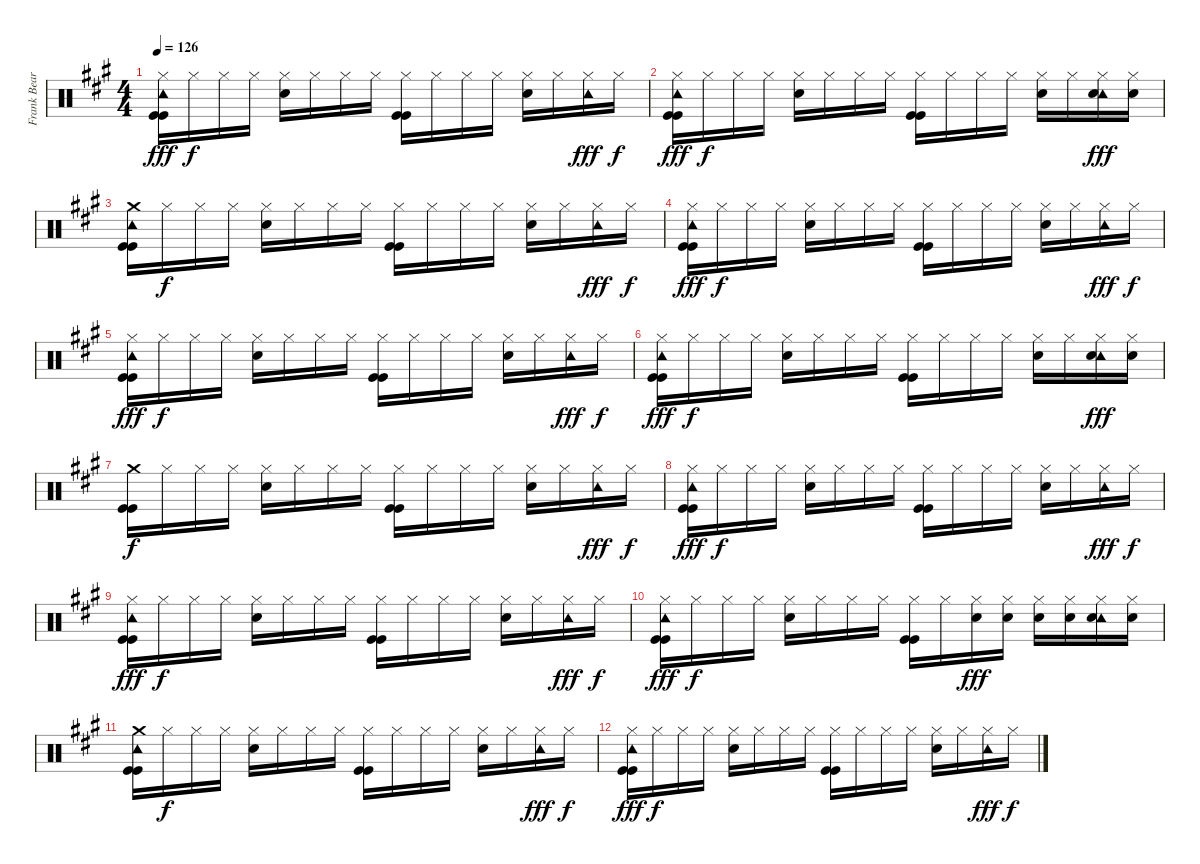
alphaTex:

\track ("Frank Beard: Drums" "Frank Bear") {instrument percussion}
\staff {score}
\articulation defaults
\ts (4 4)
\tempo 126
\clef neutral
\ks a
("Hi-Hat (closed)" "Tambourine (hit)" "Kick (hit)" "Kick (hit)").16{dy fff} "Hi-Hat (closed)".16{dy f} "Hi-Hat (closed)".16 "Hi-Hat (closed)".16 ("Hi-Hat (closed)" "Electric Snare (hit)").16 "Hi-Hat (closed)".16 "Hi-Hat (closed)".16 "Hi-Hat (closed)".16 ("Hi-Hat (closed)" "Kick (hit)" "Kick (hit)").16 "Hi-Hat (closed)".16 "Hi-Hat (closed)".16 "Hi-Hat (closed)".16 ("Hi-Hat (closed)" "Electric Snare (hit)").16 "Hi-Hat (closed)".16 ("Hi-Hat (closed)" "Tambourine (hit)").16{dy fff} "Hi-Hat (closed)".16{dy f} |
("Hi-Hat (closed)" "Tambourine (hit)" "Kick (hit)" "Kick (hit)").16{dy fff} "Hi-Hat (closed)".16{dy f} "Hi-Hat (closed)".16 "Hi-Hat (closed)".16 ("Hi-Hat (closed)" "Electric Snare (hit)").16 "Hi-Hat (closed)".16 "Hi-Hat (closed)".16 "Hi-Hat (closed)".16 ("Hi-Hat (closed)" "Kick (hit)" "Kick (hit)").16 "Hi-Hat (closed)".16 "Hi-Hat (closed)".16 "Hi-Hat (closed)".16 ("Hi-Hat (closed)" "Electric Snare (hit)").16 "Hi-Hat (closed)".16 ("Hi-Hat (closed)" "Tambourine (hit)" "Electric Snare (hit)").16{dy fff} ("Hi-Hat (closed)" "Electric Snare (hit)").16 |
("Crash medium (hit)" "Tambourine (hit)" "Kick (hit)" "Kick (hit)").16 "Hi-Hat (closed)".16{dy f} "Hi-Hat (closed)".16 "Hi-Hat (closed)".16 ("Hi-Hat (closed)" "Electric Snare (hit)").16 "Hi-Hat (closed)".16 "Hi-Hat (closed)".16 "Hi-Hat (closed)".16 ("Hi-Hat (closed)" "Kick (hit)" "Kick (hit)").16 "Hi-Hat (closed)".16 "Hi-Hat (closed)".16 "Hi-Hat (closed)".16 ("Hi-Hat (closed)" "Electric Snare (hit)").16 "Hi-Hat (closed)".16 ("Hi-Hat (closed)" "Tambourine (hit)").16{dy fff} "Hi-Hat (closed)".16{dy f} |
("Hi-Hat (closed)" "Tambourine (hit)" "Kick (hit)" "Kick (hit)").16{dy fff} "Hi-Hat (closed)".16{dy f} "Hi-Hat (closed)".16 "Hi-Hat (closed)".16 ("Hi-Hat (closed)" "Electric Snare (hit)").16 "Hi-Hat (closed)".16 "Hi-Hat (closed)".16 "Hi-Hat (closed)".16 ("Hi-Hat (closed)" "Kick (hit)" "Kick (hit)").16 "Hi-Hat (closed)".16 "Hi-Hat (closed)".16 "Hi-Hat (closed)".16 ("Hi-Hat (closed)" "Electric Snare (hit)").16 "Hi-Hat (closed)".16 ("Hi-Hat (closed)" "Tambourine (hit)").16{dy fff} "Hi-Hat (closed)".16{dy f} |
("Hi-Hat (closed)" "Tambourine (hit)" "Kick (hit)" "Kick (hit)").16{dy fff} "Hi-Hat (closed)".16{dy f} "Hi-Hat (closed)".16 "Hi-Hat (closed)".16 ("Hi-Hat (closed)" "Electric Snare (hit)").16 "Hi-Hat (closed)".16 "Hi-Hat (closed)".16 "Hi-Hat (closed)".16 ("Hi-Hat (closed)" "Kick (hit)" "Kick (hit)").16 "Hi-Hat (closed)".16 "Hi-Hat (closed)".16 "Hi-Hat (closed)".16 ("Hi-Hat (closed)" "Electric Snare (hit)").16 "Hi-Hat (closed)".16 ("Hi-Hat (closed)" "Tambourine (hit)").16{dy fff} "Hi-Hat (closed)".16{dy f} |
("Hi-Hat (closed)" "Tambourine (hit)" "Kick (hit)" "Kick (hit)").16{dy fff} "Hi-Hat (closed)".16{dy f} "Hi-Hat (closed)".16 "Hi-Hat (closed)".16 ("Hi-Hat (closed)" "Electric Snare (hit)").16 "Hi-Hat (closed)".16 "Hi-Hat (closed)".16 "Hi-Hat (closed)".16 ("Hi-Hat (closed)" "Kick (hit)" "Kick (hit)").16 "Hi-Hat (closed)".16 "Hi-Hat (closed)".16 "Hi-Hat (closed)".16 ("Hi-Hat (closed)" "Electric Snare (hit)").16 "Hi-Hat (closed)".16 ("Hi-Hat (closed)" "Tambourine (hit)" "Electric Snare (hit)").16{dy fff} ("Hi-Hat (closed)" "Electric Snare (hit)").16 |
("Crash medium (hit)" "Kick (hit)" "Kick (hit)").16{dy f} "Hi-Hat (closed)".16 "Hi-Hat (closed)".16 "Hi-Hat (closed)".16 ("Hi-Hat (closed)" "Electric Snare (hit)").16 "Hi-Hat (closed)".16 "Hi-Hat (closed)".16 "Hi-Hat (closed)".16 ("Hi-Hat (closed)" "Kick (hit)" "Kick (hit)").16 "Hi-Hat (closed)".16 "Hi-Hat (closed)".16 "Hi-Hat (closed)".16 ("Hi-Hat (closed)" "Electric Snare (hit)").16 "Hi-Hat (closed)".16 ("Hi-Hat (closed)" "Tambourine (hit)").16{dy fff} "Hi-Hat (closed)".16{dy f} |
("Hi-Hat (closed)" "Tambourine (hit)" "Kick (hit)" "Kick (hit)").16{dy fff} "Hi-Hat (closed)".16{dy f} "Hi-Hat (closed)".16 "Hi-Hat (closed)".16 ("Hi-Hat (closed)" "Electric Snare (hit)").16 "Hi-Hat (closed)".16 "Hi-Hat (closed)".16 "Hi-Hat (closed)".16 ("Hi-Hat (closed)" "Kick (hit)" "Kick (hit)").16 "Hi-Hat (closed)".16 "Hi-Hat (closed)".16 "Hi-Hat (closed)".16 ("Hi-Hat (closed)" "Electric Snare (hit)").16 "Hi-Hat (closed)".16 ("Hi-Hat (closed)" "Tambourine (hit)").16{dy fff} "Hi-Hat (closed)".16{dy f} |
("Hi-Hat (closed)" "Tambourine (hit)" "Kick (hit)" "Kick (hit)").16{dy fff} "Hi-Hat (closed)".16{dy f} "Hi-Hat (closed)".16 "Hi-Hat (closed)".16 ("Hi-Hat (closed)" "Electric Snare (hit)").16 "Hi-Hat (closed)".16 "Hi-Hat (closed)".16 "Hi-Hat (closed)".16 ("Hi-Hat (closed)" "Kick (hit)" "Kick (hit)").16 "Hi-Hat (closed)".16 "Hi-Hat (closed)".16 "Hi-Hat (closed)".16 ("Hi-Hat (closed)" "Electric Snare (hit)").16 "Hi-Hat (closed)".16 ("Hi-Hat (closed)" "Tambourine (hit)").16{dy fff} "Hi-Hat (closed)".16{dy f} |
("Hi-Hat (closed)" "Tambourine (hit)" "Kick (hit)" "Kick (hit)").16{dy fff} "Hi-Hat (closed)".16{dy f} "Hi-Hat (closed)".16 "Hi-Hat (closed)".16 ("Hi-Hat (closed)" "Electric Snare (hit)").16 "Hi-Hat (closed)".16 "Hi-Hat (closed)".16 "Hi-Hat (closed)".16 ("Hi-Hat (closed)" "Kick (hit)" "Kick (hit)").16 "Hi-Hat (closed)".16 ("Hi-Hat (closed)" "Electric Snare (hit)").16{dy fff} ("Hi-Hat (closed)" "Electric Snare (hit)").16 ("Hi-Hat (closed)" "Electric Snare (hit)").16 ("Hi-Hat (closed)" "Electric Snare (hit)").16 ("Hi-Hat (closed)" "Tambourine (hit)" "Electric Snare (hit)").16 ("Hi-Hat (closed)" "Electric Snare (hit)").16 |
("Crash medium (hit)" "Tambourine (hit)" "Kick (hit)" "Kick (hit)").16 "Hi-Hat (closed)".16{dy f} "Hi-Hat (closed)".16 "Hi-Hat (closed)".16 ("Hi-Hat (closed)" "Electric Snare (hit)").16 "Hi-Hat (closed)".16 "Hi-Hat (closed)".16 "Hi-Hat (closed)".16 ("Hi-Hat (closed)" "Kick (hit)" "Kick (hit)").16 "Hi-Hat (closed)".16 "Hi-Hat (closed)".16 "Hi-Hat (closed)".16 ("Hi-Hat (closed)" "Electric Snare (hit)").16 "Hi-Hat (closed)".16 ("Hi-Hat (closed)" "Tambourine (hit)").16{dy fff} "Hi-Hat (closed)".16{dy f} |
("Hi-Hat (closed)" "Tambourine (hit)" "Kick (hit)" "Kick (hit)").16{dy fff} "Hi-Hat (closed)".16{dy f} "Hi-Hat (closed)".16 "Hi-Hat (closed)".16 ("Hi-Hat (closed)" "Electric Snare (hit)").16 "Hi-Hat (closed)".16 "Hi-Hat (closed)".16 "Hi-Hat (closed)".16 ("Hi-Hat (closed)" "Kick (hit)" "Kick (hit)").16 "Hi-Hat (closed)".16 "Hi-Hat (closed)".16 "Hi-Hat (closed)".16 ("Hi-Hat (closed)" "Electric Snare (hit)").16 "Hi-Hat (closed)".16 ("Hi-Hat (closed)" "Tambourine (hit)").16{dy fff} "Hi-Hat (closed)".16{dy f}
